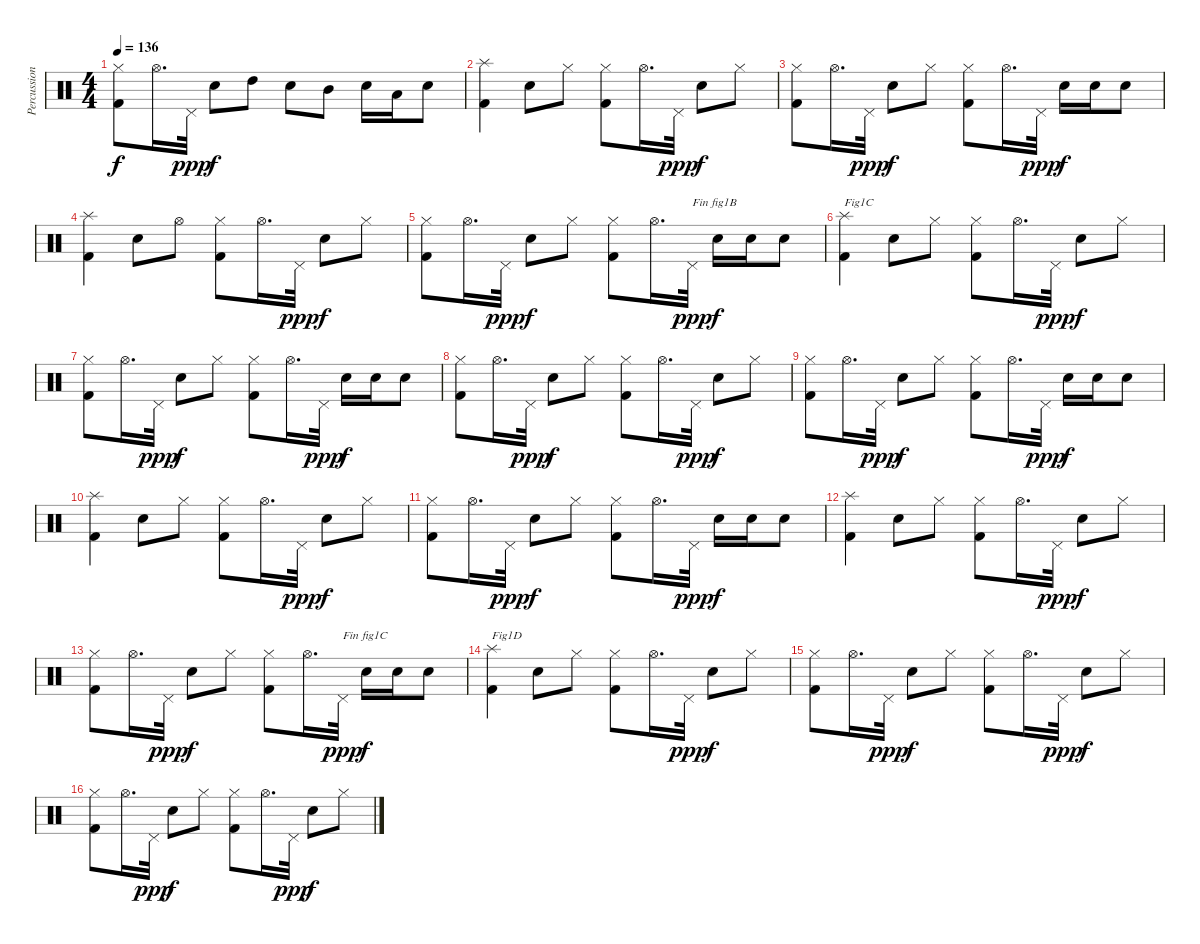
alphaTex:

\track ("Percussions" "Percussion") {instrument percussion}
\staff {score}
\articulation defaults
\ts (4 4)
\tempo 136
\clef neutral
\ks c
("Kick (hit) 2" "Hi-Hat (closed)").8{dy f} "Hi-Hat (open)".16{d} "Pedal Hi-Hat (hit)".32{dy ppp} "Electric Snare (hit)".8{dy f} "High Tom (hit)".8 "Electric Snare (hit)".8 "Mid Tom (hit)".8 "Electric Snare (hit)".16 "Low Tom (hit)".16 "Electric Snare (hit)".8 |
("Kick (hit) 2" "Splash (hit)").4 "Electric Snare (hit)".8 "Hi-Hat (closed)".8 ("Kick (hit) 2" "Hi-Hat (closed)").8 "Hi-Hat (open)".16{d} "Pedal Hi-Hat (hit)".32{dy ppp} "Electric Snare (hit)".8{dy f} "Hi-Hat (closed)".8 |
("Kick (hit) 2" "Hi-Hat (closed)").8 "Hi-Hat (open)".16{d} "Pedal Hi-Hat (hit)".32{dy ppp} "Electric Snare (hit)".8{dy f} "Hi-Hat (closed)".8 ("Kick (hit) 2" "Hi-Hat (closed)").8 "Hi-Hat (open)".16{d} "Pedal Hi-Hat (hit)".32{dy ppp} "Electric Snare (hit)".16{dy f} "Electric Snare (hit)".16 "Electric Snare (hit)".8 |
("Kick (hit) 2" "Splash (hit)").4 "Electric Snare (hit)".8 "Hi-Hat (open)".8 ("Kick (hit) 2" "Hi-Hat (closed)").8 "Hi-Hat (open)".16{d} "Pedal Hi-Hat (hit)".32{dy ppp} "Electric Snare (hit)".8{dy f} "Hi-Hat (closed)".8 |
("Kick (hit) 2" "Hi-Hat (closed)").8 "Hi-Hat (open)".16{d} "Pedal Hi-Hat (hit)".32{dy ppp} "Electric Snare (hit)".8{dy f} "Hi-Hat (closed)".8 ("Kick (hit) 2" "Hi-Hat (closed)").8 "Hi-Hat (open)".16{d} "Pedal Hi-Hat (hit)".32{txt "Fin fig1B" dy ppp} "Electric Snare (hit)".16{dy f} "Electric Snare (hit)".16 "Electric Snare (hit)".8 |
("Kick (hit) 2" "Splash (hit)").4{txt "Fig1C"} "Electric Snare (hit)".8 "Hi-Hat (closed)".8 ("Kick (hit) 2" "Hi-Hat (closed)").8 "Hi-Hat (open)".16{d} "Pedal Hi-Hat (hit)".32{dy ppp} "Electric Snare (hit)".8{dy f} "Hi-Hat (closed)".8 |
("Kick (hit) 2" "Hi-Hat (closed)").8 "Hi-Hat (open)".16{d} "Pedal Hi-Hat (hit)".32{dy ppp} "Electric Snare (hit)".8{dy f} "Hi-Hat (closed)".8 ("Kick (hit) 2" "Hi-Hat (closed)").8 "Hi-Hat (open)".16{d} "Pedal Hi-Hat (hit)".32{dy ppp} "Electric Snare (hit)".16{dy f} "Electric Snare (hit)".16 "Electric Snare (hit)".8 |
("Kick (hit) 2" "Hi-Hat (closed)").8 "Hi-Hat (open)".16{d} "Pedal Hi-Hat (hit)".32{dy ppp} "Electric Snare (hit)".8{dy f} "Hi-Hat (closed)".8 ("Kick (hit) 2" "Hi-Hat (closed)").8 "Hi-Hat (open)".16{d} "Pedal Hi-Hat (hit)".32{dy ppp} "Electric Snare (hit)".8{dy f} "Hi-Hat (closed)".8 |
("Kick (hit) 2" "Hi-Hat (closed)").8 "Hi-Hat (open)".16{d} "Pedal Hi-Hat (hit)".32{dy ppp} "Electric Snare (hit)".8{dy f} "Hi-Hat (closed)".8 ("Kick (hit) 2" "Hi-Hat (closed)").8 "Hi-Hat (open)".16{d} "Pedal Hi-Hat (hit)".32{dy ppp} "Electric Snare (hit)".16{dy f} "Electric Snare (hit)".16 "Electric Snare (hit)".8 |
("Kick (hit) 2" "Splash (hit)").4 "Electric Snare (hit)".8 "Hi-Hat (closed)".8 ("Kick (hit) 2" "Hi-Hat (closed)").8 "Hi-Hat (open)".16{d} "Pedal Hi-Hat (hit)".32{dy ppp} "Electric Snare (hit)".8{dy f} "Hi-Hat (closed)".8 |
("Kick (hit) 2" "Hi-Hat (closed)").8 "Hi-Hat (open)".16{d} "Pedal Hi-Hat (hit)".32{dy ppp} "Electric Snare (hit)".8{dy f} "Hi-Hat (closed)".8 ("Kick (hit) 2" "Hi-Hat (closed)").8 "Hi-Hat (open)".16{d} "Pedal Hi-Hat (hit)".32{dy ppp} "Electric Snare (hit)".16{dy f} "Electric Snare (hit)".16 "Electric Snare (hit)".8 |
("Kick (hit) 2" "Splash (hit)").4 "Electric Snare (hit)".8 "Hi-Hat (closed)".8 ("Kick (hit) 2" "Hi-Hat (closed)").8 "Hi-Hat (open)".16{d} "Pedal Hi-Hat (hit)".32{dy ppp} "Electric Snare (hit)".8{dy f} "Hi-Hat (closed)".8 |
("Kick (hit) 2" "Hi-Hat (closed)").8 "Hi-Hat (open)".16{d} "Pedal Hi-Hat (hit)".32{dy ppp} "Electric Snare (hit)".8{dy f} "Hi-Hat (closed)".8 ("Kick (hit) 2" "Hi-Hat (closed)").8 "Hi-Hat (open)".16{d} "Pedal Hi-Hat (hit)".32{txt "Fin fig1C" dy ppp} "Electric Snare (hit)".16{dy f} "Electric Snare (hit)".16 "Electric Snare (hit)".8 |
("Kick (hit) 2" "Splash (hit)").4{txt "Fig1D"} "Electric Snare (hit)".8 "Hi-Hat (closed)".8 ("Kick (hit) 2" "Hi-Hat (closed)").8 "Hi-Hat (open)".16{d} "Pedal Hi-Hat (hit)".32{dy ppp} "Electric Snare (hit)".8{dy f} "Hi-Hat (closed)".8 |
("Kick (hit) 2" "Hi-Hat (closed)").8 "Hi-Hat (open)".16{d} "Pedal Hi-Hat (hit)".32{dy ppp} "Electric Snare (hit)".8{dy f} "Hi-Hat (closed)".8 ("Kick (hit) 2" "Hi-Hat (closed)").8 "Hi-Hat (open)".16{d} "Pedal Hi-Hat (hit)".32{dy ppp} "Electric Snare (hit)".8{dy f} "Hi-Hat (closed)".8 |
("Kick (hit) 2" "Hi-Hat (closed)").8 "Hi-Hat (open)".16{d} "Pedal Hi-Hat (hit)".32{dy ppp} "Electric Snare (hit)".8{dy f} "Hi-Hat (closed)".8 ("Kick (hit) 2" "Hi-Hat (closed)").8 "Hi-Hat (open)".16{d} "Pedal Hi-Hat (hit)".32{dy ppp} "Electric Snare (hit)".8{dy f} "Hi-Hat (closed)".8
